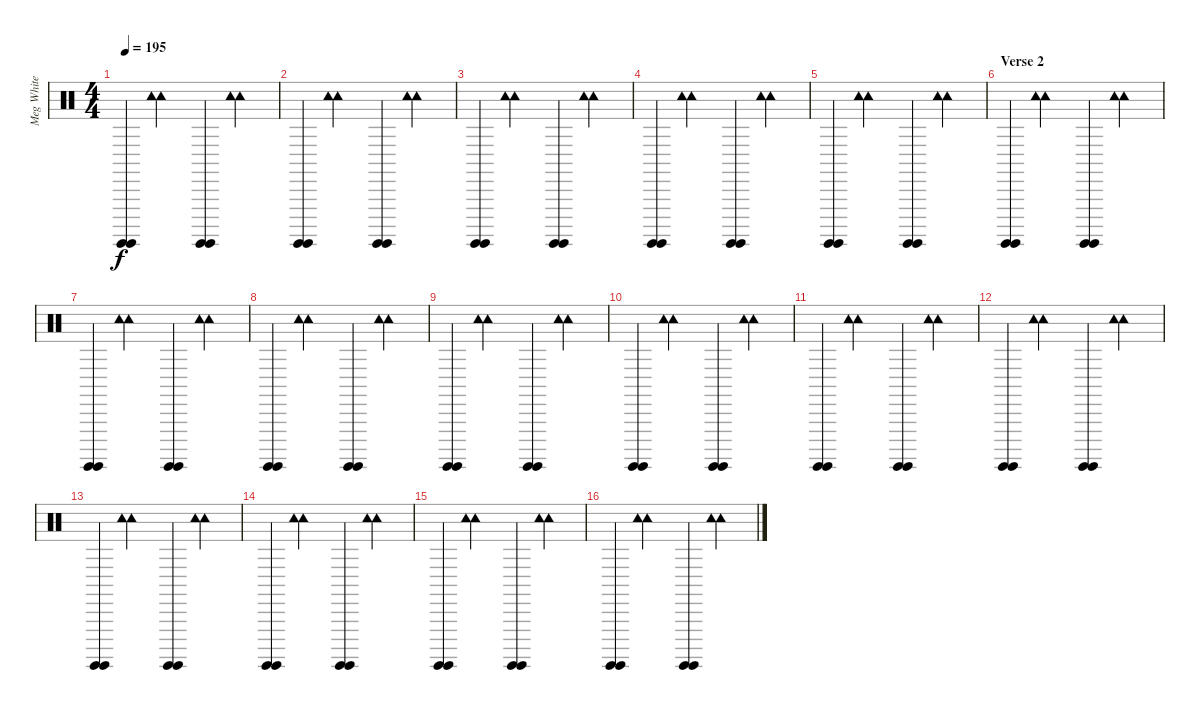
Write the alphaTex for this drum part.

\track ("Meg White" "Meg White") {instrument percussion}
\staff {score}
\articulation defaults
\ts (4 4)
\tempo 195
\clef neutral
\ks c
("Surdo (hit)" "Surdo (hit)").4{dy f} ("Tambourine (hit)" "Tambourine (hit)").4 ("Surdo (hit)" "Surdo (hit)").4 ("Tambourine (hit)" "Tambourine (hit)").4 |
("Surdo (hit)" "Surdo (hit)").4 ("Tambourine (hit)" "Tambourine (hit)").4 ("Surdo (hit)" "Surdo (hit)").4 ("Tambourine (hit)" "Tambourine (hit)").4 |
("Surdo (hit)" "Surdo (hit)").4 ("Tambourine (hit)" "Tambourine (hit)").4 ("Surdo (hit)" "Surdo (hit)").4 ("Tambourine (hit)" "Tambourine (hit)").4 |
("Surdo (hit)" "Surdo (hit)").4 ("Tambourine (hit)" "Tambourine (hit)").4 ("Surdo (hit)" "Surdo (hit)").4 ("Tambourine (hit)" "Tambourine (hit)").4 |
("Surdo (hit)" "Surdo (hit)").4 ("Tambourine (hit)" "Tambourine (hit)").4 ("Surdo (hit)" "Surdo (hit)").4 ("Tambourine (hit)" "Tambourine (hit)").4 |
\section ("" "Verse 2")
("Surdo (hit)" "Surdo (hit)").4 ("Tambourine (hit)" "Tambourine (hit)").4 ("Surdo (hit)" "Surdo (hit)").4 ("Tambourine (hit)" "Tambourine (hit)").4 |
("Surdo (hit)" "Surdo (hit)").4 ("Tambourine (hit)" "Tambourine (hit)").4 ("Surdo (hit)" "Surdo (hit)").4 ("Tambourine (hit)" "Tambourine (hit)").4 |
("Surdo (hit)" "Surdo (hit)").4 ("Tambourine (hit)" "Tambourine (hit)").4 ("Surdo (hit)" "Surdo (hit)").4 ("Tambourine (hit)" "Tambourine (hit)").4 |
("Surdo (hit)" "Surdo (hit)").4 ("Tambourine (hit)" "Tambourine (hit)").4 ("Surdo (hit)" "Surdo (hit)").4 ("Tambourine (hit)" "Tambourine (hit)").4 |
("Surdo (hit)" "Surdo (hit)").4 ("Tambourine (hit)" "Tambourine (hit)").4 ("Surdo (hit)" "Surdo (hit)").4 ("Tambourine (hit)" "Tambourine (hit)").4 |
("Surdo (hit)" "Surdo (hit)").4 ("Tambourine (hit)" "Tambourine (hit)").4 ("Surdo (hit)" "Surdo (hit)").4 ("Tambourine (hit)" "Tambourine (hit)").4 |
("Surdo (hit)" "Surdo (hit)").4 ("Tambourine (hit)" "Tambourine (hit)").4 ("Surdo (hit)" "Surdo (hit)").4 ("Tambourine (hit)" "Tambourine (hit)").4 |
("Surdo (hit)" "Surdo (hit)").4 ("Tambourine (hit)" "Tambourine (hit)").4 ("Surdo (hit)" "Surdo (hit)").4 ("Tambourine (hit)" "Tambourine (hit)").4 |
("Surdo (hit)" "Surdo (hit)").4 ("Tambourine (hit)" "Tambourine (hit)").4 ("Surdo (hit)" "Surdo (hit)").4 ("Tambourine (hit)" "Tambourine (hit)").4 |
("Surdo (hit)" "Surdo (hit)").4 ("Tambourine (hit)" "Tambourine (hit)").4 ("Surdo (hit)" "Surdo (hit)").4 ("Tambourine (hit)" "Tambourine (hit)").4 |
("Surdo (hit)" "Surdo (hit)").4 ("Tambourine (hit)" "Tambourine (hit)").4 ("Surdo (hit)" "Surdo (hit)").4 ("Tambourine (hit)" "Tambourine (hit)").4
